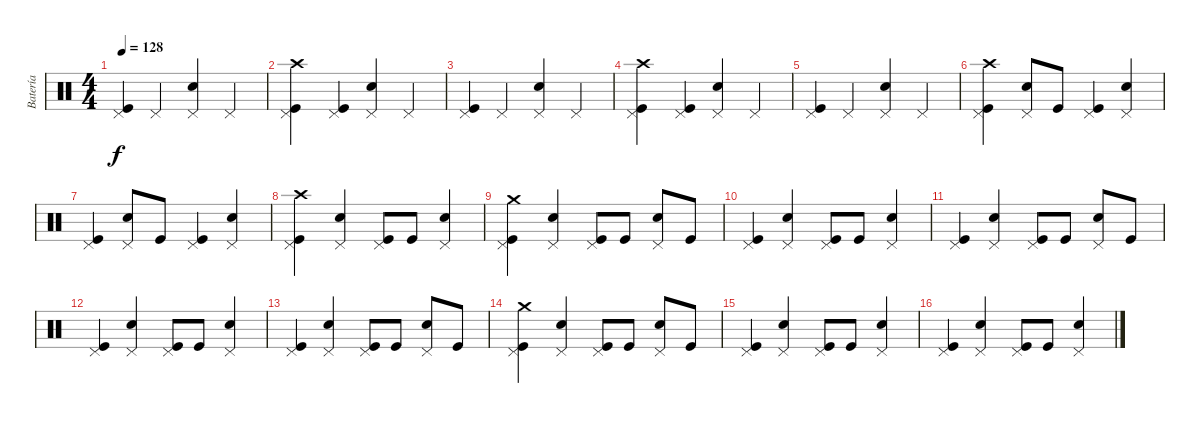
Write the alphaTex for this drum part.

\track ("Batería" "Batería") {instrument percussion}
\staff {score}
\articulation defaults
\ts (4 4)
\tempo 128
\clef neutral
\ks c
("Pedal Hi-Hat (hit)" "Kick (hit)").4{dy f} "Pedal Hi-Hat (hit)".4 ("Pedal Hi-Hat (hit)" "Snare (hit) 2").4 "Pedal Hi-Hat (hit)".4 |
("Crash high (hit)" "Pedal Hi-Hat (hit)" "Kick (hit)").4 ("Pedal Hi-Hat (hit)" "Kick (hit)").4 ("Pedal Hi-Hat (hit)" "Snare (hit) 2").4 "Pedal Hi-Hat (hit)".4 |
("Pedal Hi-Hat (hit)" "Kick (hit)").4 "Pedal Hi-Hat (hit)".4 ("Pedal Hi-Hat (hit)" "Snare (hit) 2").4 "Pedal Hi-Hat (hit)".4 |
("Crash high (hit)" "Pedal Hi-Hat (hit)" "Kick (hit)").4 ("Pedal Hi-Hat (hit)" "Kick (hit)").4 ("Pedal Hi-Hat (hit)" "Snare (hit) 2").4 "Pedal Hi-Hat (hit)".4 |
("Pedal Hi-Hat (hit)" "Kick (hit)").4 "Pedal Hi-Hat (hit)".4 ("Pedal Hi-Hat (hit)" "Snare (hit) 2").4 "Pedal Hi-Hat (hit)".4 |
("Crash high (hit)" "Pedal Hi-Hat (hit)" "Kick (hit)").4 ("Pedal Hi-Hat (hit)" "Snare (hit) 2").8 "Kick (hit)".8 ("Pedal Hi-Hat (hit)" "Kick (hit)").4 ("Pedal Hi-Hat (hit)" "Snare (hit) 2").4 |
("Pedal Hi-Hat (hit)" "Kick (hit)").4 ("Pedal Hi-Hat (hit)" "Snare (hit) 2").8 "Kick (hit)".8 ("Pedal Hi-Hat (hit)" "Kick (hit)").4 ("Pedal Hi-Hat (hit)" "Snare (hit) 2").4 |
("Crash high (hit)" "Pedal Hi-Hat (hit)" "Kick (hit)").4 ("Pedal Hi-Hat (hit)" "Snare (hit) 2").4 ("Pedal Hi-Hat (hit)" "Kick (hit)").8 "Kick (hit)".8 ("Pedal Hi-Hat (hit)" "Snare (hit) 2").4 |
("Crash medium (hit)" "Pedal Hi-Hat (hit)" "Kick (hit)").4 ("Pedal Hi-Hat (hit)" "Snare (hit) 2").4 ("Pedal Hi-Hat (hit)" "Kick (hit)").8 "Kick (hit)".8 ("Pedal Hi-Hat (hit)" "Snare (hit) 2").8 "Kick (hit)".8 |
("Pedal Hi-Hat (hit)" "Kick (hit)").4 ("Pedal Hi-Hat (hit)" "Snare (hit) 2").4 ("Pedal Hi-Hat (hit)" "Kick (hit)").8 "Kick (hit)".8 ("Pedal Hi-Hat (hit)" "Snare (hit) 2").4 |
("Pedal Hi-Hat (hit)" "Kick (hit)").4 ("Pedal Hi-Hat (hit)" "Snare (hit) 2").4 ("Pedal Hi-Hat (hit)" "Kick (hit)").8 "Kick (hit)".8 ("Pedal Hi-Hat (hit)" "Snare (hit) 2").8 "Kick (hit)".8 |
("Pedal Hi-Hat (hit)" "Kick (hit)").4 ("Pedal Hi-Hat (hit)" "Snare (hit) 2").4 ("Pedal Hi-Hat (hit)" "Kick (hit)").8 "Kick (hit)".8 ("Pedal Hi-Hat (hit)" "Snare (hit) 2").4 |
("Pedal Hi-Hat (hit)" "Kick (hit)").4 ("Pedal Hi-Hat (hit)" "Snare (hit) 2").4 ("Pedal Hi-Hat (hit)" "Kick (hit)").8 "Kick (hit)".8 ("Pedal Hi-Hat (hit)" "Snare (hit) 2").8 "Kick (hit)".8 |
("Crash medium (hit)" "Pedal Hi-Hat (hit)" "Kick (hit)").4 ("Pedal Hi-Hat (hit)" "Snare (hit) 2").4 ("Pedal Hi-Hat (hit)" "Kick (hit)").8 "Kick (hit)".8 ("Pedal Hi-Hat (hit)" "Snare (hit) 2").8 "Kick (hit)".8 |
("Pedal Hi-Hat (hit)" "Kick (hit)").4 ("Pedal Hi-Hat (hit)" "Snare (hit) 2").4 ("Pedal Hi-Hat (hit)" "Kick (hit)").8 "Kick (hit)".8 ("Pedal Hi-Hat (hit)" "Snare (hit) 2").4 |
("Pedal Hi-Hat (hit)" "Kick (hit)").4 ("Pedal Hi-Hat (hit)" "Snare (hit) 2").4 ("Pedal Hi-Hat (hit)" "Kick (hit)").8 "Kick (hit)".8 ("Pedal Hi-Hat (hit)" "Snare (hit) 2").4
